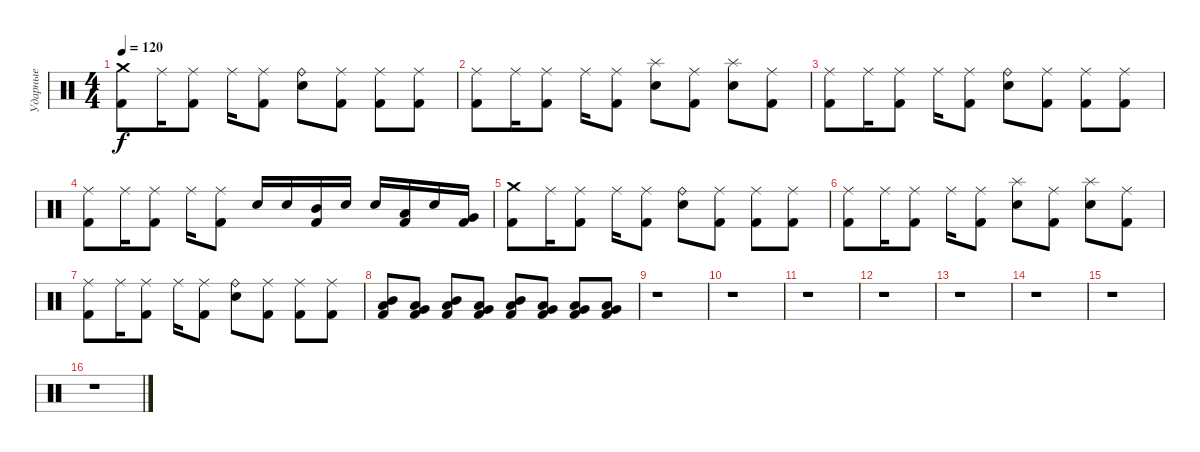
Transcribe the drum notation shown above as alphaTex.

\track ("Ударные" "Ударные") {instrument percussion}
\staff {score}
\articulation defaults
\ts (4 4)
\tempo 120
\clef neutral
\ks c
("Crash medium (hit)" "Kick (hit) 2").8{dy f} "Ride (middle)".16 ("Ride (middle)" "Kick (hit) 2").8 "Ride (middle)".16 ("Ride (middle)" "Kick (hit) 2").8 ("Ride (bell)" "Electric Snare (hit)").8 ("Ride (middle)" "Kick (hit) 2").8 ("Ride (middle)" "Kick (hit) 2").8 ("Ride (middle)" "Kick (hit) 2").8 |
("Ride (middle)" "Kick (hit) 2").8 "Ride (middle)".16 ("Ride (middle)" "Kick (hit) 2").8 "Ride (middle)".16 ("Ride (middle)" "Kick (hit) 2").8 ("Splash (hit)" "Electric Snare (hit)").8 ("Ride (middle)" "Kick (hit) 2").8 ("Splash (hit)" "Electric Snare (hit)").8 ("Ride (middle)" "Kick (hit) 2").8 |
("Ride (middle)" "Kick (hit) 2").8 "Ride (middle)".16 ("Ride (middle)" "Kick (hit) 2").8 "Ride (middle)".16 ("Ride (middle)" "Kick (hit) 2").8 ("Ride (bell)" "Electric Snare (hit)").8 ("Ride (middle)" "Kick (hit) 2").8 ("Ride (middle)" "Kick (hit) 2").8 ("Ride (middle)" "Kick (hit) 2").8 |
("Ride (middle)" "Kick (hit) 2").8 "Ride (middle)".16 ("Ride (middle)" "Kick (hit) 2").8 "Ride (middle)".16 ("Ride (middle)" "Kick (hit) 2").8 "Electric Snare (hit)".16 "Electric Snare (hit)".16 ("Mid Tom (hit)" "Kick (hit) 2").16 "Electric Snare (hit)".16 "Electric Snare (hit)".16 ("Low Tom (hit)" "Kick (hit) 2").16 "Electric Snare (hit)".16 ("Very Low Tom (hit)" "Kick (hit) 2").16 |
("Crash medium (hit)" "Kick (hit) 2").8 "Ride (middle)".16 ("Ride (middle)" "Kick (hit) 2").8 "Ride (middle)".16 ("Ride (middle)" "Kick (hit) 2").8 ("Ride (bell)" "Electric Snare (hit)").8 ("Ride (middle)" "Kick (hit) 2").8 ("Ride (middle)" "Kick (hit) 2").8 ("Ride (middle)" "Kick (hit) 2").8 |
("Ride (middle)" "Kick (hit) 2").8 "Ride (middle)".16 ("Ride (middle)" "Kick (hit) 2").8 "Ride (middle)".16 ("Ride (middle)" "Kick (hit) 2").8 ("Splash (hit)" "Electric Snare (hit)").8 ("Ride (middle)" "Kick (hit) 2").8 ("Splash (hit)" "Electric Snare (hit)").8 ("Ride (middle)" "Kick (hit) 2").8 |
("Ride (middle)" "Kick (hit) 2").8 "Ride (middle)".16 ("Ride (middle)" "Kick (hit) 2").8 "Ride (middle)".16 ("Ride (middle)" "Kick (hit) 2").8 ("Ride (bell)" "Electric Snare (hit)").8 ("Ride (middle)" "Kick (hit) 2").8 ("Ride (middle)" "Kick (hit) 2").8 ("Ride (middle)" "Kick (hit) 2").8 |
("Low Tom (hit)" "Mid Tom (hit)" "Kick (hit) 2").8 ("Low Floor Tom (hit)" "Very Low Tom (hit)" "Kick (hit) 2").8 ("Low Tom (hit)" "Mid Tom (hit)" "Kick (hit) 2").8 ("Low Floor Tom (hit)" "Very Low Tom (hit)" "Kick (hit) 2").8 ("Low Tom (hit)" "Mid Tom (hit)" "Kick (hit) 2").8 ("Low Floor Tom (hit)" "Very Low Tom (hit)" "Kick (hit) 2").8 ("Low Tom (hit)" "Very Low Tom (hit)" "Kick (hit) 2").8 ("Low Tom (hit)" "Very Low Tom (hit)" "Kick (hit) 2").8 |
r.1 |
r.1 |
r.1 |
r.1 |
r.1 |
r.1 |
r.1 |
r.1
